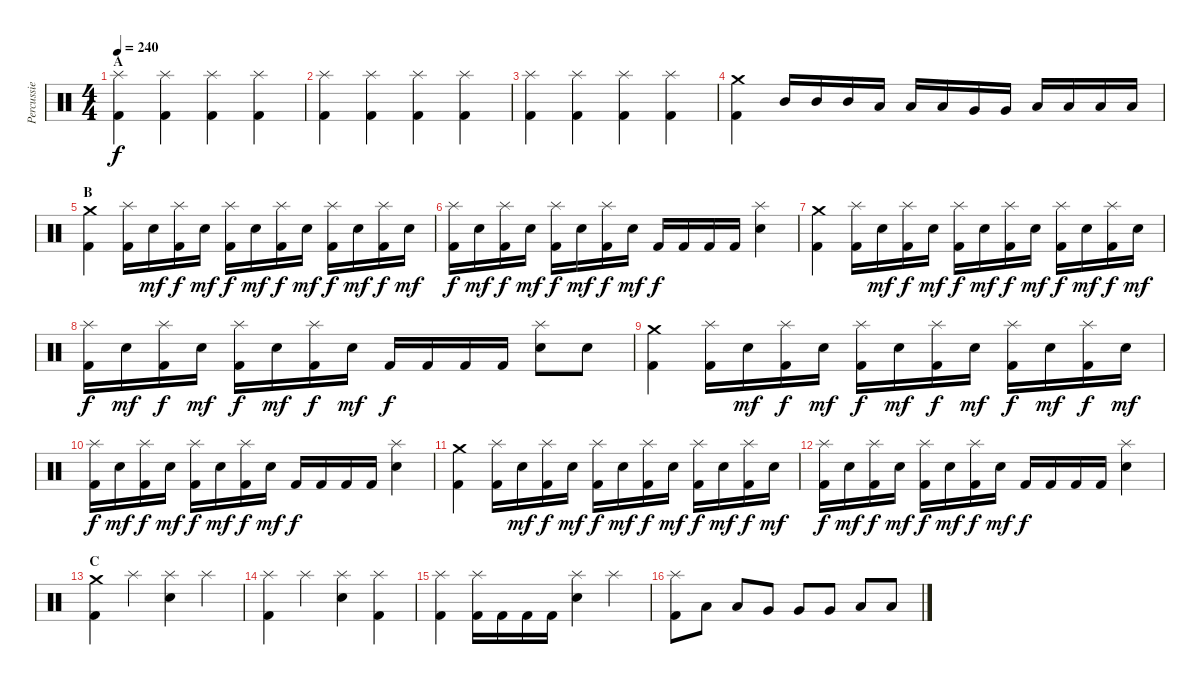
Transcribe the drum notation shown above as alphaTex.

\track ("Percussie" "Percussie") {instrument percussion}
\staff {score}
\articulation defaults
\ts (4 4)
\section ("" "A")
\tempo 240
\clef neutral
\ks c
("Splash (hit)" "Kick (hit) 2").4{dy f} ("Splash (hit)" "Kick (hit) 2").4 ("Splash (hit)" "Kick (hit) 2").4 ("Splash (hit)" "Kick (hit) 2").4 |
("Splash (hit)" "Kick (hit) 2").4 ("Splash (hit)" "Kick (hit) 2").4 ("Splash (hit)" "Kick (hit) 2").4 ("Splash (hit)" "Kick (hit) 2").4 |
("Splash (hit)" "Kick (hit) 2").4 ("Splash (hit)" "Kick (hit) 2").4 ("Splash (hit)" "Kick (hit) 2").4 ("Splash (hit)" "Kick (hit) 2").4 |
("Crash medium (hit)" "Kick (hit) 2").4 "Mid Tom (hit)".16 "Mid Tom (hit)".16 "Mid Tom (hit)".16 "Low Tom (hit)".16 "Low Tom (hit)".16 "Low Tom (hit)".16 "Very Low Tom (hit)".16 "Very Low Tom (hit)".16 "Low Floor Tom (hit)".16 "Low Floor Tom (hit)".16 "Low Floor Tom (hit)".16 "Low Floor Tom (hit)".16 |
\section ("" "B")
("Crash medium (hit)" "Kick (hit) 2").4 ("Splash (hit)" "Kick (hit) 2").16 "Electric Snare (hit)".16{dy mf} ("Splash (hit)" "Kick (hit) 2").16{dy f} "Electric Snare (hit)".16{dy mf} ("Splash (hit)" "Kick (hit) 2").16{dy f} "Electric Snare (hit)".16{dy mf} ("Splash (hit)" "Kick (hit) 2").16{dy f} "Electric Snare (hit)".16{dy mf} ("Splash (hit)" "Kick (hit) 2").16{dy f} "Electric Snare (hit)".16{dy mf} ("Splash (hit)" "Kick (hit) 2").16{dy f} "Electric Snare (hit)".16{dy mf} |
("Splash (hit)" "Kick (hit) 2").16{dy f} "Electric Snare (hit)".16{dy mf} ("Splash (hit)" "Kick (hit) 2").16{dy f} "Electric Snare (hit)".16{dy mf} ("Splash (hit)" "Kick (hit) 2").16{dy f} "Electric Snare (hit)".16{dy mf} ("Splash (hit)" "Kick (hit) 2").16{dy f} "Electric Snare (hit)".16{dy mf} "Kick (hit) 2".16{dy f} "Kick (hit) 2".16 "Kick (hit) 2".16 "Kick (hit) 2".16 ("Splash (hit)" "Electric Snare (hit)").4 |
("Crash medium (hit)" "Kick (hit) 2").4 ("Splash (hit)" "Kick (hit) 2").16 "Electric Snare (hit)".16{dy mf} ("Splash (hit)" "Kick (hit) 2").16{dy f} "Electric Snare (hit)".16{dy mf} ("Splash (hit)" "Kick (hit) 2").16{dy f} "Electric Snare (hit)".16{dy mf} ("Splash (hit)" "Kick (hit) 2").16{dy f} "Electric Snare (hit)".16{dy mf} ("Splash (hit)" "Kick (hit) 2").16{dy f} "Electric Snare (hit)".16{dy mf} ("Splash (hit)" "Kick (hit) 2").16{dy f} "Electric Snare (hit)".16{dy mf} |
("Splash (hit)" "Kick (hit) 2").16{dy f} "Electric Snare (hit)".16{dy mf} ("Splash (hit)" "Kick (hit) 2").16{dy f} "Electric Snare (hit)".16{dy mf} ("Splash (hit)" "Kick (hit) 2").16{dy f} "Electric Snare (hit)".16{dy mf} ("Splash (hit)" "Kick (hit) 2").16{dy f} "Electric Snare (hit)".16{dy mf} "Kick (hit) 2".16{dy f} "Kick (hit) 2".16 "Kick (hit) 2".16 "Kick (hit) 2".16 ("Splash (hit)" "Electric Snare (hit)").8 "Electric Snare (hit)".8 |
("Crash medium (hit)" "Kick (hit) 2").4 ("Splash (hit)" "Kick (hit) 2").16 "Electric Snare (hit)".16{dy mf} ("Splash (hit)" "Kick (hit) 2").16{dy f} "Electric Snare (hit)".16{dy mf} ("Splash (hit)" "Kick (hit) 2").16{dy f} "Electric Snare (hit)".16{dy mf} ("Splash (hit)" "Kick (hit) 2").16{dy f} "Electric Snare (hit)".16{dy mf} ("Splash (hit)" "Kick (hit) 2").16{dy f} "Electric Snare (hit)".16{dy mf} ("Splash (hit)" "Kick (hit) 2").16{dy f} "Electric Snare (hit)".16{dy mf} |
("Splash (hit)" "Kick (hit) 2").16{dy f} "Electric Snare (hit)".16{dy mf} ("Splash (hit)" "Kick (hit) 2").16{dy f} "Electric Snare (hit)".16{dy mf} ("Splash (hit)" "Kick (hit) 2").16{dy f} "Electric Snare (hit)".16{dy mf} ("Splash (hit)" "Kick (hit) 2").16{dy f} "Electric Snare (hit)".16{dy mf} "Kick (hit) 2".16{dy f} "Kick (hit) 2".16 "Kick (hit) 2".16 "Kick (hit) 2".16 ("Splash (hit)" "Electric Snare (hit)").4 |
("Crash medium (hit)" "Kick (hit) 2").4 ("Splash (hit)" "Kick (hit) 2").16 "Electric Snare (hit)".16{dy mf} ("Splash (hit)" "Kick (hit) 2").16{dy f} "Electric Snare (hit)".16{dy mf} ("Splash (hit)" "Kick (hit) 2").16{dy f} "Electric Snare (hit)".16{dy mf} ("Splash (hit)" "Kick (hit) 2").16{dy f} "Electric Snare (hit)".16{dy mf} ("Splash (hit)" "Kick (hit) 2").16{dy f} "Electric Snare (hit)".16{dy mf} ("Splash (hit)" "Kick (hit) 2").16{dy f} "Electric Snare (hit)".16{dy mf} |
("Splash (hit)" "Kick (hit) 2").16{dy f} "Electric Snare (hit)".16{dy mf} ("Splash (hit)" "Kick (hit) 2").16{dy f} "Electric Snare (hit)".16{dy mf} ("Splash (hit)" "Kick (hit) 2").16{dy f} "Electric Snare (hit)".16{dy mf} ("Splash (hit)" "Kick (hit) 2").16{dy f} "Electric Snare (hit)".16{dy mf} "Kick (hit) 2".16{dy f} "Kick (hit) 2".16 "Kick (hit) 2".16 "Kick (hit) 2".16 ("Splash (hit)" "Electric Snare (hit)").4 |
\section ("" "C")
("Crash medium (hit)" "Kick (hit) 2").4 "Splash (hit)".4 ("Splash (hit)" "Electric Snare (hit)").4 "Splash (hit)".4 |
("Splash (hit)" "Kick (hit) 2").4 "Splash (hit)".4 ("Splash (hit)" "Electric Snare (hit)").4 ("Splash (hit)" "Kick (hit) 2").4 |
("Splash (hit)" "Kick (hit) 2").4 ("Splash (hit)" "Kick (hit) 2").16 "Kick (hit) 2".16 "Kick (hit) 2".16 "Kick (hit) 2".16 ("Splash (hit)" "Electric Snare (hit)").4 "Splash (hit)".4 |
("Splash (hit)" "Kick (hit) 2").8 "Low Tom (hit)".8 "Low Tom (hit)".8 "Very Low Tom (hit)".8 "Very Low Tom (hit)".8 "Very Low Tom (hit)".8 "Low Floor Tom (hit)".8 "Low Floor Tom (hit)".8
